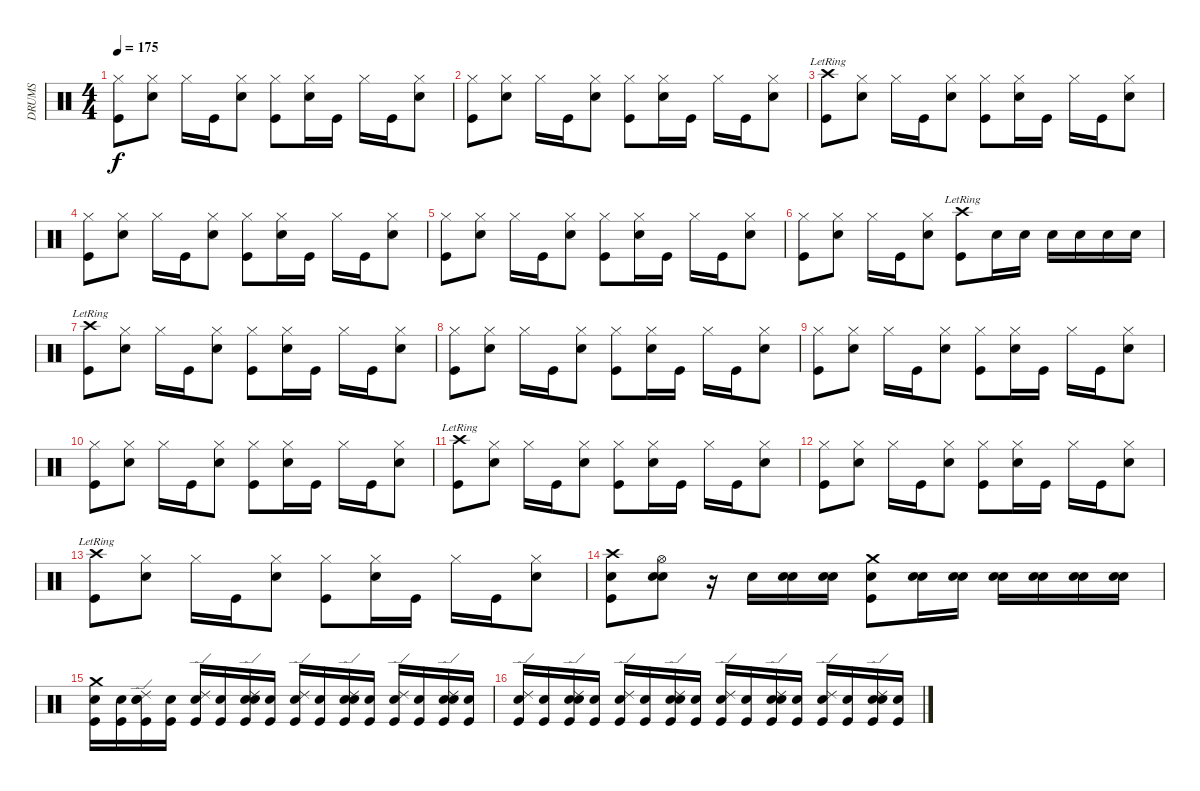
\track ("DRUMS" "DRUMS") {instrument percussion}
\staff {score}
\articulation defaults
\ts (4 4)
\tempo 175
\clef neutral
\ks c
("Hi-Hat (closed)" "Kick (hit)").8{dy f} ("Hi-Hat (closed)" "Snare (hit) 2").8 "Hi-Hat (closed)".16 "Kick (hit)".16 ("Hi-Hat (closed)" "Snare (hit) 2").8 ("Hi-Hat (closed)" "Kick (hit)").8 ("Hi-Hat (closed)" "Snare (hit) 2").16 "Kick (hit)".16 "Hi-Hat (closed)".16 "Kick (hit)".16 ("Hi-Hat (closed)" "Snare (hit) 2").8 |
("Hi-Hat (closed)" "Kick (hit)").8 ("Hi-Hat (closed)" "Snare (hit) 2").8 "Hi-Hat (closed)".16 "Kick (hit)".16 ("Hi-Hat (closed)" "Snare (hit) 2").8 ("Hi-Hat (closed)" "Kick (hit)").8 ("Hi-Hat (closed)" "Snare (hit) 2").16 "Kick (hit)".16 "Hi-Hat (closed)".16 "Kick (hit)".16 ("Hi-Hat (closed)" "Snare (hit) 2").8 |
("Crash high (hit)"{lr} "Kick (hit)").8 ("Hi-Hat (closed)" "Snare (hit) 2").8 "Hi-Hat (closed)".16 "Kick (hit)".16 ("Hi-Hat (closed)" "Snare (hit) 2").8 ("Hi-Hat (closed)" "Kick (hit)").8 ("Hi-Hat (closed)" "Snare (hit) 2").16 "Kick (hit)".16 "Hi-Hat (closed)".16 "Kick (hit)".16 ("Hi-Hat (closed)" "Snare (hit) 2").8 |
("Hi-Hat (closed)" "Kick (hit)").8 ("Hi-Hat (closed)" "Snare (hit) 2").8 "Hi-Hat (closed)".16 "Kick (hit)".16 ("Hi-Hat (closed)" "Snare (hit) 2").8 ("Hi-Hat (closed)" "Kick (hit)").8 ("Hi-Hat (closed)" "Snare (hit) 2").16 "Kick (hit)".16 "Hi-Hat (closed)".16 "Kick (hit)".16 ("Hi-Hat (closed)" "Snare (hit) 2").8 |
("Hi-Hat (closed)" "Kick (hit)").8 ("Hi-Hat (closed)" "Snare (hit) 2").8 "Hi-Hat (closed)".16 "Kick (hit)".16 ("Hi-Hat (closed)" "Snare (hit) 2").8 ("Hi-Hat (closed)" "Kick (hit)").8 ("Hi-Hat (closed)" "Snare (hit) 2").16 "Kick (hit)".16 "Hi-Hat (closed)".16 "Kick (hit)".16 ("Hi-Hat (closed)" "Snare (hit) 2").8 |
("Hi-Hat (closed)" "Kick (hit)").8 ("Hi-Hat (closed)" "Snare (hit) 2").8 "Hi-Hat (closed)".16 "Kick (hit)".16 ("Hi-Hat (closed)" "Snare (hit) 2").8 ("Crash high (hit)"{lr} "Kick (hit)").8 "Snare (hit) 2".16 "Snare (hit) 2".16 "Snare (hit) 2".16 "Snare (hit) 2".16 "Snare (hit) 2".16 "Snare (hit) 2".16 |
("Crash high (hit)"{lr} "Kick (hit)").8 ("Hi-Hat (closed)" "Snare (hit) 2").8 "Hi-Hat (closed)".16 "Kick (hit)".16 ("Hi-Hat (closed)" "Snare (hit) 2").8 ("Hi-Hat (closed)" "Kick (hit)").8 ("Hi-Hat (closed)" "Snare (hit) 2").16 "Kick (hit)".16 "Hi-Hat (closed)".16 "Kick (hit)".16 ("Hi-Hat (closed)" "Snare (hit) 2").8 |
("Hi-Hat (closed)" "Kick (hit)").8 ("Hi-Hat (closed)" "Snare (hit) 2").8 "Hi-Hat (closed)".16 "Kick (hit)".16 ("Hi-Hat (closed)" "Snare (hit) 2").8 ("Hi-Hat (closed)" "Kick (hit)").8 ("Hi-Hat (closed)" "Snare (hit) 2").16 "Kick (hit)".16 "Hi-Hat (closed)".16 "Kick (hit)".16 ("Hi-Hat (closed)" "Snare (hit) 2").8 |
("Hi-Hat (closed)" "Kick (hit)").8 ("Hi-Hat (closed)" "Snare (hit) 2").8 "Hi-Hat (closed)".16 "Kick (hit)".16 ("Hi-Hat (closed)" "Snare (hit) 2").8 ("Hi-Hat (closed)" "Kick (hit)").8 ("Hi-Hat (closed)" "Snare (hit) 2").16 "Kick (hit)".16 "Hi-Hat (closed)".16 "Kick (hit)".16 ("Hi-Hat (closed)" "Snare (hit) 2").8 |
("Hi-Hat (closed)" "Kick (hit)").8 ("Hi-Hat (closed)" "Snare (hit) 2").8 "Hi-Hat (closed)".16 "Kick (hit)".16 ("Hi-Hat (closed)" "Snare (hit) 2").8 ("Hi-Hat (closed)" "Kick (hit)").8 ("Hi-Hat (closed)" "Snare (hit) 2").16 "Kick (hit)".16 "Hi-Hat (closed)".16 "Kick (hit)".16 ("Hi-Hat (closed)" "Snare (hit) 2").8 |
("Crash high (hit)"{lr} "Kick (hit)").8 ("Hi-Hat (closed)" "Snare (hit) 2").8 "Hi-Hat (closed)".16 "Kick (hit)".16 ("Hi-Hat (closed)" "Snare (hit) 2").8 ("Hi-Hat (closed)" "Kick (hit)").8 ("Hi-Hat (closed)" "Snare (hit) 2").16 "Kick (hit)".16 "Hi-Hat (closed)".16 "Kick (hit)".16 ("Hi-Hat (closed)" "Snare (hit) 2").8 |
("Hi-Hat (closed)" "Kick (hit)").8 ("Hi-Hat (closed)" "Snare (hit) 2").8 "Hi-Hat (closed)".16 "Kick (hit)".16 ("Hi-Hat (closed)" "Snare (hit) 2").8 ("Hi-Hat (closed)" "Kick (hit)").8 ("Hi-Hat (closed)" "Snare (hit) 2").16 "Kick (hit)".16 "Hi-Hat (closed)".16 "Kick (hit)".16 ("Hi-Hat (closed)" "Snare (hit) 2").8 |
("Crash high (hit)"{lr} "Kick (hit)").8 ("Hi-Hat (closed)" "Snare (hit) 2").8 "Hi-Hat (closed)".16 "Kick (hit)".16 ("Hi-Hat (closed)" "Snare (hit) 2").8 ("Hi-Hat (closed)" "Kick (hit)").8 ("Hi-Hat (closed)" "Snare (hit) 2").16 "Kick (hit)".16 "Hi-Hat (closed)".16 "Kick (hit)".16 ("Hi-Hat (closed)" "Snare (hit) 2").8 |
("Snare (hit)" "Crash high (hit)" "Kick (hit)").8 ("Snare (hit)" "Hi-Hat (open)" "Snare (hit) 2").8 r.16 "Snare (hit) 2".16 ("Snare (hit)" "Snare (hit) 2").16 ("Snare (hit)" "Snare (hit) 2").16 ("Snare (hit)" "Crash medium (hit)" "Kick (hit)").8 ("Snare (hit)" "Snare (hit) 2").16 ("Snare (hit)" "Snare (hit) 2").16 ("Snare (hit)" "Snare (hit) 2").16 ("Snare (hit)" "Snare (hit) 2").16 ("Snare (hit)" "Snare (hit) 2").16 ("Snare (hit)" "Snare (hit) 2").16 |
("Snare (hit)" "Crash medium (hit)" "Kick (hit)").16 ("Snare (hit)" "Kick (hit)").16 ("Snare (hit)" "Ride (edge) 2" "Snare (hit) 2" "Kick (hit)").16 ("Snare (hit)" "Kick (hit)").16 ("Snare (hit)" "Ride (edge) 2" "Kick (hit)").16 ("Snare (hit)" "Kick (hit)").16 ("Snare (hit)" "Ride (edge) 2" "Snare (hit) 2" "Kick (hit)").16 ("Snare (hit)" "Kick (hit)").16 ("Snare (hit)" "Ride (edge) 2" "Kick (hit)").16 ("Snare (hit)" "Kick (hit)").16 ("Snare (hit)" "Ride (edge) 2" "Snare (hit) 2" "Kick (hit)").16 ("Snare (hit)" "Kick (hit)").16 ("Snare (hit)" "Ride (edge) 2" "Kick (hit)").16 ("Snare (hit)" "Kick (hit)").16 ("Snare (hit)" "Ride (edge) 2" "Snare (hit) 2" "Kick (hit)").16 ("Snare (hit)" "Kick (hit)").16 |
("Snare (hit)" "Ride (edge) 2" "Kick (hit)").16 ("Snare (hit)" "Kick (hit)").16 ("Snare (hit)" "Ride (edge) 2" "Snare (hit) 2" "Kick (hit)").16 ("Snare (hit)" "Kick (hit)").16 ("Snare (hit)" "Ride (edge) 2" "Kick (hit)").16 ("Snare (hit)" "Kick (hit)").16 ("Snare (hit)" "Ride (edge) 2" "Snare (hit) 2" "Kick (hit)").16 ("Snare (hit)" "Kick (hit)").16 ("Snare (hit)" "Ride (edge) 2" "Kick (hit)").16 ("Snare (hit)" "Kick (hit)").16 ("Snare (hit)" "Ride (edge) 2" "Snare (hit) 2" "Kick (hit)").16 ("Snare (hit)" "Kick (hit)").16 ("Snare (hit)" "Ride (edge) 2" "Kick (hit)").16 ("Snare (hit)" "Kick (hit)").16 ("Snare (hit)" "Ride (edge) 2" "Snare (hit) 2" "Kick (hit)").16 ("Snare (hit)" "Kick (hit)").16
